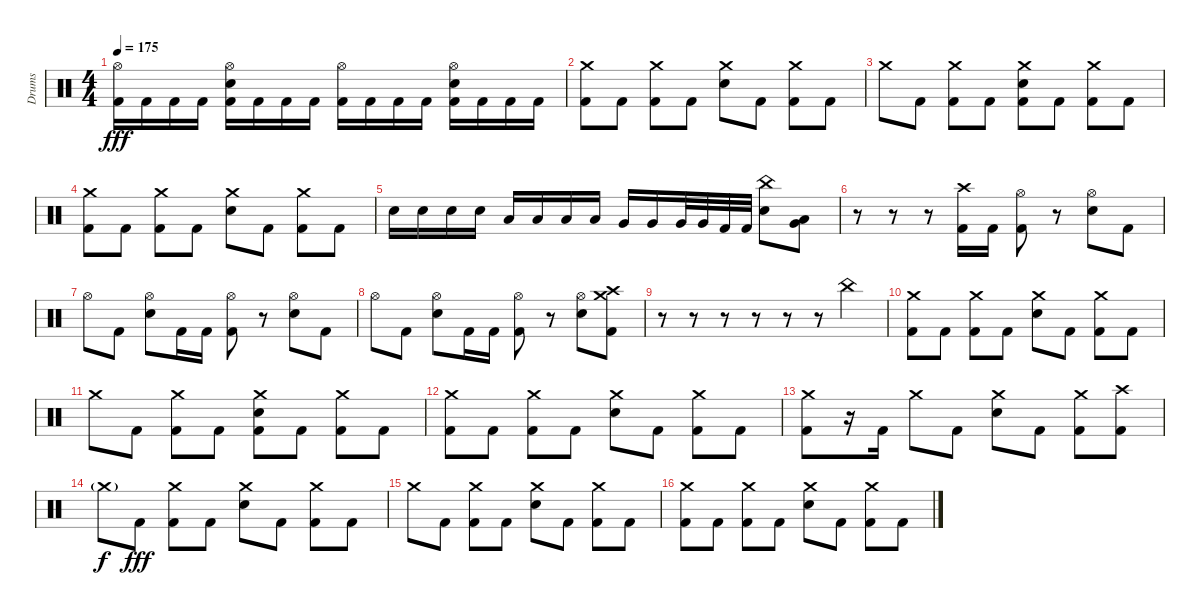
\track ("Drums" "Drums") {instrument percussion}
\staff {score}
\articulation defaults
\ts (4 4)
\tempo 175
\clef neutral
\ks c
("Hi-Hat (open)" "Kick (hit) 2").16{dy fff} "Kick (hit) 2".16 "Kick (hit) 2".16 "Kick (hit) 2".16 ("Hi-Hat (open)" "Snare (hit) 2" "Kick (hit) 2").16 "Kick (hit) 2".16 "Kick (hit) 2".16 "Kick (hit) 2".16 ("Hi-Hat (open)" "Kick (hit) 2").16 "Kick (hit) 2".16 "Kick (hit) 2".16 "Kick (hit) 2".16 ("Hi-Hat (open)" "Snare (hit) 2" "Kick (hit) 2").16 "Kick (hit) 2".16 "Kick (hit) 2".16 "Kick (hit) 2".16 |
("Crash medium (hit)" "Kick (hit) 2").8 "Kick (hit) 2".8 ("Crash medium (hit)" "Kick (hit) 2").8 "Kick (hit) 2".8 ("Crash medium (hit)" "Snare (hit) 2").8 "Kick (hit) 2".8 ("Crash medium (hit)" "Kick (hit) 2").8 "Kick (hit) 2".8 |
"Crash medium (hit)".8 "Kick (hit) 2".8 ("Crash medium (hit)" "Kick (hit) 2").8 "Kick (hit) 2".8 ("Crash medium (hit)" "Snare (hit) 2" "Kick (hit) 2").8 "Kick (hit) 2".8 ("Crash medium (hit)" "Kick (hit) 2").8 "Kick (hit) 2".8 |
("Crash medium (hit)" "Kick (hit) 2").8 "Kick (hit) 2".8 ("Crash medium (hit)" "Kick (hit) 2").8 "Kick (hit) 2".8 ("Crash medium (hit)" "Snare (hit) 2").8 "Kick (hit) 2".8 ("Crash medium (hit)" "Kick (hit) 2").8 "Kick (hit) 2".8 |
"Snare (hit) 2".16 "Snare (hit) 2".16 "Snare (hit) 2".16 "Snare (hit) 2".16 "Low Tom (hit)".16 "Low Tom (hit)".16 "Low Tom (hit)".16 "Low Tom (hit)".16 "Very Low Tom (hit)".16 "Very Low Tom (hit)".16 "Very Low Tom (hit)".32 "Very Low Tom (hit)".32 "Kick (hit) 2".32 "Kick (hit) 2".32 ("China (hit)" "Snare (hit) 2").8 ("Low Floor Tom (hit)" "Very Low Tom (hit)").8 |
r.8 r.8 r.8 ("Crash high (hit)" "Kick (hit) 2").16 "Kick (hit) 2".16 ("Hi-Hat (open)" "Kick (hit) 2").8 r.8 ("Hi-Hat (open)" "Snare (hit) 2").8 "Kick (hit) 2".8 |
"Hi-Hat (open)".8 "Kick (hit) 2".8 ("Hi-Hat (open)" "Snare (hit) 2").8 "Kick (hit) 2".16 "Kick (hit) 2".16 ("Hi-Hat (open)" "Kick (hit) 2").8 r.8 ("Hi-Hat (open)" "Snare (hit) 2").8 "Kick (hit) 2".8 |
"Hi-Hat (open)".8 "Kick (hit) 2".8 ("Hi-Hat (open)" "Snare (hit) 2").8 "Kick (hit) 2".16 "Kick (hit) 2".16 ("Hi-Hat (open)" "Kick (hit) 2").8 r.8 ("Hi-Hat (open)" "Snare (hit) 2").8 ("Crash medium (hit)" "Crash high (hit)" "Kick (hit) 2").8 |
r.8 r.8 r.8 r.8 r.8 r.8 "China (hit)".4 |
("Crash medium (hit)" "Kick (hit) 2").8 "Kick (hit) 2".8 ("Crash medium (hit)" "Kick (hit) 2").8 "Kick (hit) 2".8 ("Crash medium (hit)" "Snare (hit) 2").8 "Kick (hit) 2".8 ("Crash medium (hit)" "Kick (hit) 2").8 "Kick (hit) 2".8 |
"Crash medium (hit)".8 "Kick (hit) 2".8 ("Crash medium (hit)" "Kick (hit) 2").8 "Kick (hit) 2".8 ("Crash medium (hit)" "Snare (hit) 2" "Kick (hit) 2").8 "Kick (hit) 2".8 ("Crash medium (hit)" "Kick (hit) 2").8 "Kick (hit) 2".8 |
("Crash medium (hit)" "Kick (hit) 2").8 "Kick (hit) 2".8 ("Crash medium (hit)" "Kick (hit) 2").8 "Kick (hit) 2".8 ("Crash medium (hit)" "Snare (hit) 2").8 "Kick (hit) 2".8 ("Crash medium (hit)" "Kick (hit) 2").8 "Kick (hit) 2".8 |
("Crash medium (hit)" "Kick (hit) 2").8 r.16 "Kick (hit) 2".16 "Crash medium (hit)".8 "Kick (hit) 2".8 ("Crash medium (hit)" "Snare (hit) 2").8 "Kick (hit) 2".8 ("Crash medium (hit)" "Kick (hit) 2").8 ("Crash high (hit)" "Kick (hit) 2").8 |
"Crash medium (hit)"{g}.8{dy f} "Kick (hit) 2".8{dy fff} ("Crash medium (hit)" "Kick (hit) 2").8 "Kick (hit) 2".8 ("Crash medium (hit)" "Snare (hit) 2").8 "Kick (hit) 2".8 ("Crash medium (hit)" "Kick (hit) 2").8 "Kick (hit) 2".8 |
"Crash medium (hit)".8 "Kick (hit) 2".8 ("Crash medium (hit)" "Kick (hit) 2").8 "Kick (hit) 2".8 ("Crash medium (hit)" "Snare (hit) 2").8 "Kick (hit) 2".8 ("Crash medium (hit)" "Kick (hit) 2").8 "Kick (hit) 2".8 |
("Crash medium (hit)" "Kick (hit) 2").8 "Kick (hit) 2".8 ("Crash medium (hit)" "Kick (hit) 2").8 "Kick (hit) 2".8 ("Crash medium (hit)" "Snare (hit) 2").8 "Kick (hit) 2".8 ("Crash medium (hit)" "Kick (hit) 2").8 "Kick (hit) 2".8
